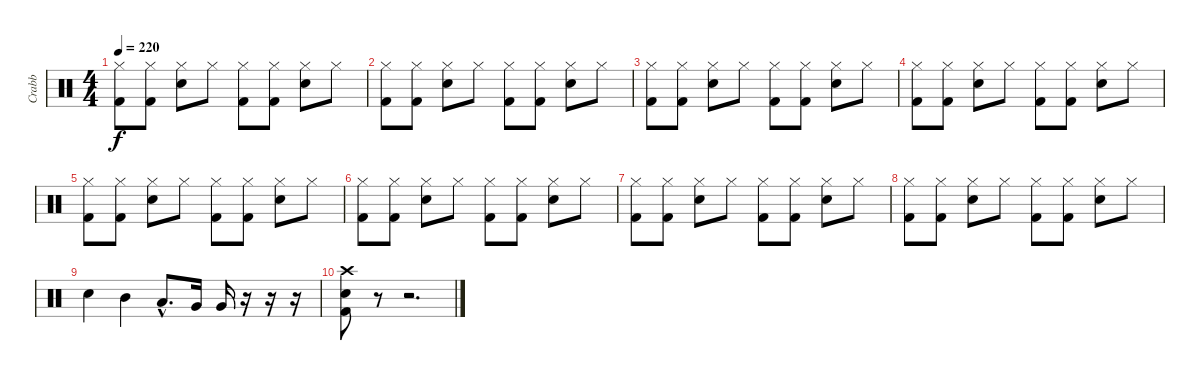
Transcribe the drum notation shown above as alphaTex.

\track ("Crabb" "Crabb") {instrument percussion}
\staff {score}
\articulation defaults
\ts (4 4)
\tempo 220
\clef neutral
\ks c
("Hi-Hat (closed)" "Kick (hit) 2").8{dy f} ("Hi-Hat (closed)" "Kick (hit) 2").8 ("Hi-Hat (closed)" "Electric Snare (hit)").8 "Hi-Hat (closed)".8 ("Hi-Hat (closed)" "Kick (hit) 2").8 ("Hi-Hat (closed)" "Kick (hit) 2").8 ("Hi-Hat (closed)" "Electric Snare (hit)").8 "Hi-Hat (closed)".8 |
("Hi-Hat (closed)" "Kick (hit) 2").8 ("Hi-Hat (closed)" "Kick (hit) 2").8 ("Hi-Hat (closed)" "Electric Snare (hit)").8 "Hi-Hat (closed)".8 ("Hi-Hat (closed)" "Kick (hit) 2").8 ("Hi-Hat (closed)" "Kick (hit) 2").8 ("Hi-Hat (closed)" "Electric Snare (hit)").8 "Hi-Hat (closed)".8 |
("Hi-Hat (closed)" "Kick (hit) 2").8 ("Hi-Hat (closed)" "Kick (hit) 2").8 ("Hi-Hat (closed)" "Electric Snare (hit)").8 "Hi-Hat (closed)".8 ("Hi-Hat (closed)" "Kick (hit) 2").8 ("Hi-Hat (closed)" "Kick (hit) 2").8 ("Hi-Hat (closed)" "Electric Snare (hit)").8 "Hi-Hat (closed)".8 |
("Hi-Hat (closed)" "Kick (hit) 2").8 ("Hi-Hat (closed)" "Kick (hit) 2").8 ("Hi-Hat (closed)" "Electric Snare (hit)").8 "Hi-Hat (closed)".8 ("Hi-Hat (closed)" "Kick (hit) 2").8 ("Hi-Hat (closed)" "Kick (hit) 2").8 ("Hi-Hat (closed)" "Electric Snare (hit)").8 "Hi-Hat (closed)".8 |
("Hi-Hat (closed)" "Kick (hit) 2").8 ("Hi-Hat (closed)" "Kick (hit) 2").8 ("Hi-Hat (closed)" "Electric Snare (hit)").8 "Hi-Hat (closed)".8 ("Hi-Hat (closed)" "Kick (hit) 2").8 ("Hi-Hat (closed)" "Kick (hit) 2").8 ("Hi-Hat (closed)" "Electric Snare (hit)").8 "Hi-Hat (closed)".8 |
("Hi-Hat (closed)" "Kick (hit) 2").8 ("Hi-Hat (closed)" "Kick (hit) 2").8 ("Hi-Hat (closed)" "Electric Snare (hit)").8 "Hi-Hat (closed)".8 ("Hi-Hat (closed)" "Kick (hit) 2").8 ("Hi-Hat (closed)" "Kick (hit) 2").8 ("Hi-Hat (closed)" "Electric Snare (hit)").8 "Hi-Hat (closed)".8 |
("Hi-Hat (closed)" "Kick (hit) 2").8 ("Hi-Hat (closed)" "Kick (hit) 2").8 ("Hi-Hat (closed)" "Electric Snare (hit)").8 "Hi-Hat (closed)".8 ("Hi-Hat (closed)" "Kick (hit) 2").8 ("Hi-Hat (closed)" "Kick (hit) 2").8 ("Hi-Hat (closed)" "Electric Snare (hit)").8 "Hi-Hat (closed)".8 |
("Hi-Hat (closed)" "Kick (hit) 2").8 ("Hi-Hat (closed)" "Kick (hit) 2").8 ("Hi-Hat (closed)" "Electric Snare (hit)").8 "Hi-Hat (closed)".8 ("Hi-Hat (closed)" "Kick (hit) 2").8 ("Hi-Hat (closed)" "Kick (hit) 2").8 ("Hi-Hat (closed)" "Electric Snare (hit)").8 "Hi-Hat (closed)".8 |
"Electric Snare (hit)".4 "Mid Tom (hit)".4 "Low Tom (hit)"{hac}.8{d} "Very Low Tom (hit)".16 "Very Low Tom (hit)".16 r.16 r.16 r.16 |
("Crash high (hit)" "Kick (hit) 2" "Electric Snare (hit)").8 r.8 r.2{d}
